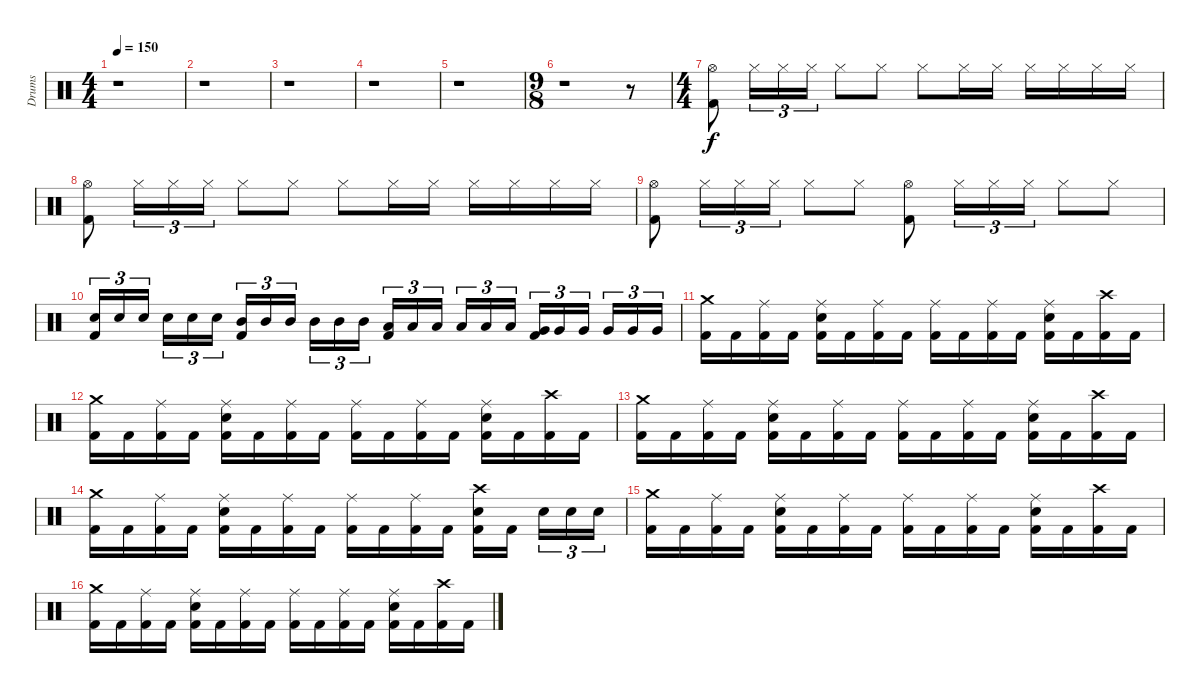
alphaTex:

\track ("Drums" "Drums") {instrument percussion}
\staff {score}
\articulation defaults
\ts (4 4)
\tempo 150
\clef neutral
\ks c
r.1{dy f} |
r.1 |
\section ("" "")
r.1 |
r.1 |
r.1 |
\ts (9 8)
r.1 r.8 |
\ts (4 4)
("Hi-Hat (open)" "Kick (hit) 2").8 "Hi-Hat (closed)".16{tu (3 2)} "Hi-Hat (closed)".16{tu (3 2)} "Hi-Hat (closed)".16{tu (3 2)} "Hi-Hat (closed)".8 "Hi-Hat (closed)".8 "Hi-Hat (closed)".8 "Hi-Hat (closed)".16 "Hi-Hat (closed)".16 "Hi-Hat (closed)".16 "Hi-Hat (closed)".16 "Hi-Hat (closed)".16 "Hi-Hat (closed)".16 |
("Hi-Hat (open)" "Kick (hit) 2").8 "Hi-Hat (closed)".16{tu (3 2)} "Hi-Hat (closed)".16{tu (3 2)} "Hi-Hat (closed)".16{tu (3 2)} "Hi-Hat (closed)".8 "Hi-Hat (closed)".8 "Hi-Hat (closed)".8 "Hi-Hat (closed)".16 "Hi-Hat (closed)".16 "Hi-Hat (closed)".16 "Hi-Hat (closed)".16 "Hi-Hat (closed)".16 "Hi-Hat (closed)".16 |
("Hi-Hat (open)" "Kick (hit) 2").8 "Hi-Hat (closed)".16{tu (3 2)} "Hi-Hat (closed)".16{tu (3 2)} "Hi-Hat (closed)".16{tu (3 2)} "Hi-Hat (closed)".8 "Hi-Hat (closed)".8 ("Hi-Hat (open)" "Kick (hit) 2").8 "Hi-Hat (closed)".16{tu (3 2)} "Hi-Hat (closed)".16{tu (3 2)} "Hi-Hat (closed)".16{tu (3 2)} "Hi-Hat (closed)".8 "Hi-Hat (closed)".8 |
("Electric Snare (hit)" "Kick (hit) 2").16{tu (3 2)} "Electric Snare (hit)".16{tu (3 2)} "Electric Snare (hit)".16{tu (3 2)} "Electric Snare (hit)".16{tu (3 2)} "Electric Snare (hit)".16{tu (3 2)} "Electric Snare (hit)".16{tu (3 2)} ("Mid Tom (hit)" "Kick (hit) 2").16{tu (3 2)} "Mid Tom (hit)".16{tu (3 2)} "Mid Tom (hit)".16{tu (3 2)} "Mid Tom (hit)".16{tu (3 2)} "Mid Tom (hit)".16{tu (3 2)} "Mid Tom (hit)".16{tu (3 2)} ("Low Tom (hit)" "Kick (hit) 2").16{tu (3 2)} "Low Tom (hit)".16{tu (3 2)} "Low Tom (hit)".16{tu (3 2)} "Low Tom (hit)".16{tu (3 2)} "Low Tom (hit)".16{tu (3 2)} "Low Tom (hit)".16{tu (3 2)} ("Very Low Tom (hit)" "Kick (hit) 2").16{tu (3 2)} "Very Low Tom (hit)".16{tu (3 2)} "Very Low Tom (hit)".16{tu (3 2)} "Very Low Tom (hit)".16{tu (3 2)} "Very Low Tom (hit)".16{tu (3 2)} "Very Low Tom (hit)".16{tu (3 2)} |
\section ("" "")
("Crash medium (hit)" "Kick (hit) 2").16 "Kick (hit) 2".16 ("Ride (middle)" "Kick (hit) 2").16 "Kick (hit) 2".16 ("Ride (middle)" "Electric Snare (hit)" "Kick (hit) 2").16 "Kick (hit) 2".16 ("Ride (middle)" "Kick (hit) 2").16 "Kick (hit) 2".16 ("Ride (middle)" "Kick (hit) 2").16 "Kick (hit) 2".16 ("Ride (middle)" "Kick (hit) 2").16 "Kick (hit) 2".16 ("Ride (middle)" "Electric Snare (hit)" "Kick (hit) 2").16 "Kick (hit) 2".16 ("Crash high (hit)" "Kick (hit) 2").16 "Kick (hit) 2".16 |
("Crash medium (hit)" "Kick (hit) 2").16 "Kick (hit) 2".16 ("Ride (middle)" "Kick (hit) 2").16 "Kick (hit) 2".16 ("Ride (middle)" "Electric Snare (hit)" "Kick (hit) 2").16 "Kick (hit) 2".16 ("Ride (middle)" "Kick (hit) 2").16 "Kick (hit) 2".16 ("Ride (middle)" "Kick (hit) 2").16 "Kick (hit) 2".16 ("Ride (middle)" "Kick (hit) 2").16 "Kick (hit) 2".16 ("Ride (middle)" "Electric Snare (hit)" "Kick (hit) 2").16 "Kick (hit) 2".16 ("Crash high (hit)" "Kick (hit) 2").16 "Kick (hit) 2".16 |
("Crash medium (hit)" "Kick (hit) 2").16 "Kick (hit) 2".16 ("Ride (middle)" "Kick (hit) 2").16 "Kick (hit) 2".16 ("Ride (middle)" "Electric Snare (hit)" "Kick (hit) 2").16 "Kick (hit) 2".16 ("Ride (middle)" "Kick (hit) 2").16 "Kick (hit) 2".16 ("Ride (middle)" "Kick (hit) 2").16 "Kick (hit) 2".16 ("Ride (middle)" "Kick (hit) 2").16 "Kick (hit) 2".16 ("Ride (middle)" "Electric Snare (hit)" "Kick (hit) 2").16 "Kick (hit) 2".16 ("Crash high (hit)" "Kick (hit) 2").16 "Kick (hit) 2".16 |
("Crash medium (hit)" "Kick (hit) 2").16 "Kick (hit) 2".16 ("Ride (middle)" "Kick (hit) 2").16 "Kick (hit) 2".16 ("Ride (middle)" "Electric Snare (hit)" "Kick (hit) 2").16 "Kick (hit) 2".16 ("Ride (middle)" "Kick (hit) 2").16 "Kick (hit) 2".16 ("Ride (middle)" "Kick (hit) 2").16 "Kick (hit) 2".16 ("Ride (middle)" "Kick (hit) 2").16 "Kick (hit) 2".16 ("Crash high (hit)" "Electric Snare (hit)" "Kick (hit) 2").16 "Kick (hit) 2".16 "Electric Snare (hit)".16{tu (3 2)} "Electric Snare (hit)".16{tu (3 2)} "Electric Snare (hit)".16{tu (3 2)} |
("Crash medium (hit)" "Kick (hit) 2").16 "Kick (hit) 2".16 ("Ride (middle)" "Kick (hit) 2").16 "Kick (hit) 2".16 ("Ride (middle)" "Electric Snare (hit)" "Kick (hit) 2").16 "Kick (hit) 2".16 ("Ride (middle)" "Kick (hit) 2").16 "Kick (hit) 2".16 ("Ride (middle)" "Kick (hit) 2").16 "Kick (hit) 2".16 ("Ride (middle)" "Kick (hit) 2").16 "Kick (hit) 2".16 ("Ride (middle)" "Electric Snare (hit)" "Kick (hit) 2").16 "Kick (hit) 2".16 ("Crash high (hit)" "Kick (hit) 2").16 "Kick (hit) 2".16 |
("Crash medium (hit)" "Kick (hit) 2").16 "Kick (hit) 2".16 ("Ride (middle)" "Kick (hit) 2").16 "Kick (hit) 2".16 ("Ride (middle)" "Electric Snare (hit)" "Kick (hit) 2").16 "Kick (hit) 2".16 ("Ride (middle)" "Kick (hit) 2").16 "Kick (hit) 2".16 ("Ride (middle)" "Kick (hit) 2").16 "Kick (hit) 2".16 ("Ride (middle)" "Kick (hit) 2").16 "Kick (hit) 2".16 ("Ride (middle)" "Electric Snare (hit)" "Kick (hit) 2").16 "Kick (hit) 2".16 ("Crash high (hit)" "Kick (hit) 2").16 "Kick (hit) 2".16
